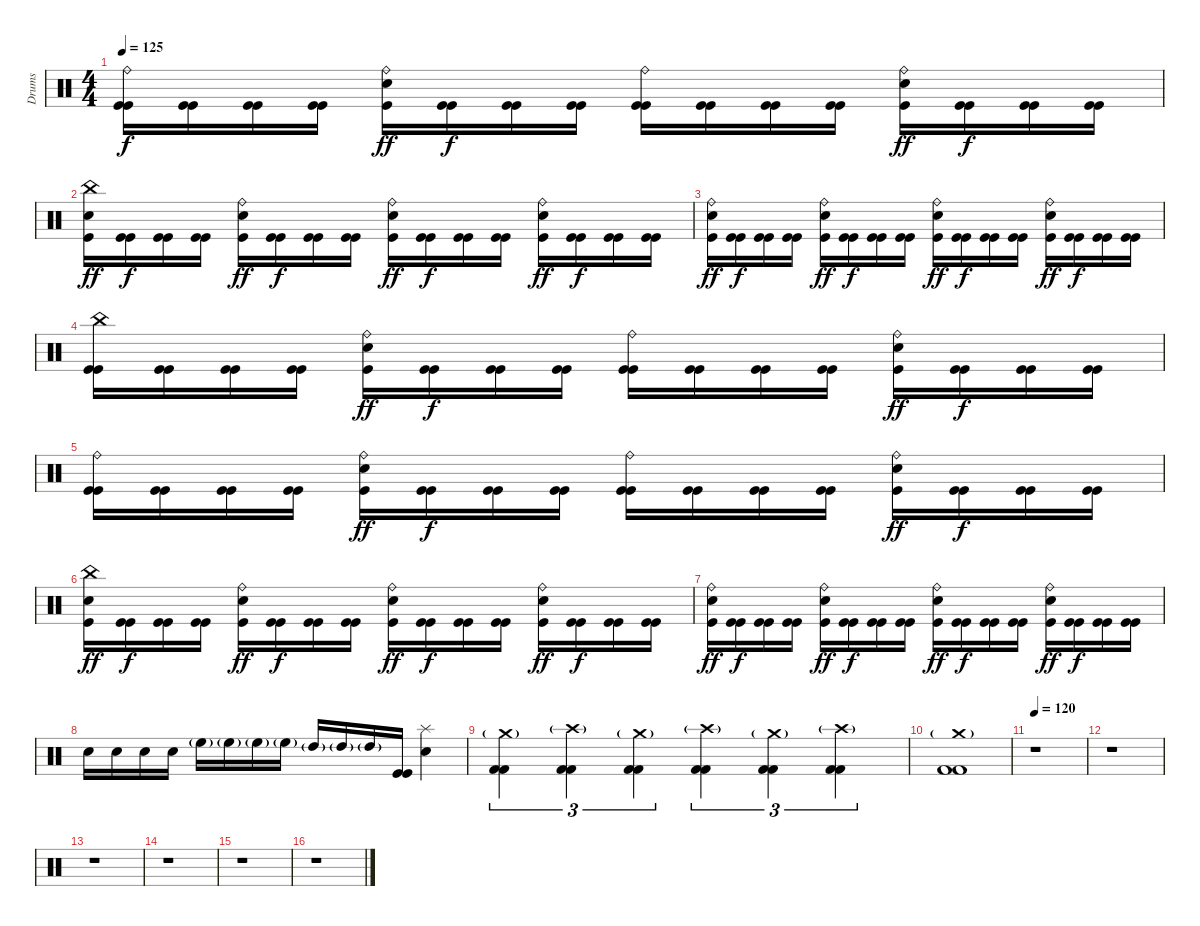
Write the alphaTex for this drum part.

\track ("Drums" "Drums") {instrument percussion}
\staff {score}
\articulation defaults
\ts (4 4)
\tempo 125
\clef neutral
\ks c
("Ride (bell)" "Kick (hit)" "Kick (hit)").16{dy f} ("Kick (hit)" "Kick (hit)").16 ("Kick (hit)" "Kick (hit)").16 ("Kick (hit)" "Kick (hit)").16 ("Ride (bell)" "Electric Snare (hit)" "Kick (hit)").16{dy ff} ("Kick (hit)" "Kick (hit)").16{dy f} ("Kick (hit)" "Kick (hit)").16 ("Kick (hit)" "Kick (hit)").16 ("Ride (bell)" "Kick (hit)" "Kick (hit)").16 ("Kick (hit)" "Kick (hit)").16 ("Kick (hit)" "Kick (hit)").16 ("Kick (hit)" "Kick (hit)").16 ("Ride (bell)" "Electric Snare (hit)" "Kick (hit)").16{dy ff} ("Kick (hit)" "Kick (hit)").16{dy f} ("Kick (hit)" "Kick (hit)").16 ("Kick (hit)" "Kick (hit)").16 |
("China (hit)" "Electric Snare (hit)" "Kick (hit)").16{dy ff} ("Kick (hit)" "Kick (hit)").16{dy f} ("Kick (hit)" "Kick (hit)").16 ("Kick (hit)" "Kick (hit)").16 ("Ride (bell)" "Electric Snare (hit)" "Kick (hit)").16{dy ff} ("Kick (hit)" "Kick (hit)").16{dy f} ("Kick (hit)" "Kick (hit)").16 ("Kick (hit)" "Kick (hit)").16 ("Ride (bell)" "Electric Snare (hit)" "Kick (hit)").16{dy ff} ("Kick (hit)" "Kick (hit)").16{dy f} ("Kick (hit)" "Kick (hit)").16 ("Kick (hit)" "Kick (hit)").16 ("Ride (bell)" "Electric Snare (hit)" "Kick (hit)").16{dy ff} ("Kick (hit)" "Kick (hit)").16{dy f} ("Kick (hit)" "Kick (hit)").16 ("Kick (hit)" "Kick (hit)").16 |
("Ride (bell)" "Electric Snare (hit)" "Kick (hit)").16{dy ff} ("Kick (hit)" "Kick (hit)").16{dy f} ("Kick (hit)" "Kick (hit)").16 ("Kick (hit)" "Kick (hit)").16 ("Ride (bell)" "Electric Snare (hit)" "Kick (hit)").16{dy ff} ("Kick (hit)" "Kick (hit)").16{dy f} ("Kick (hit)" "Kick (hit)").16 ("Kick (hit)" "Kick (hit)").16 ("Ride (bell)" "Electric Snare (hit)" "Kick (hit)").16{dy ff} ("Kick (hit)" "Kick (hit)").16{dy f} ("Kick (hit)" "Kick (hit)").16 ("Kick (hit)" "Kick (hit)").16 ("Ride (bell)" "Electric Snare (hit)" "Kick (hit)").16{dy ff} ("Kick (hit)" "Kick (hit)").16{dy f} ("Kick (hit)" "Kick (hit)").16 ("Kick (hit)" "Kick (hit)").16 |
("China (hit)" "Kick (hit)" "Kick (hit)").16 ("Kick (hit)" "Kick (hit)").16 ("Kick (hit)" "Kick (hit)").16 ("Kick (hit)" "Kick (hit)").16 ("Ride (bell)" "Electric Snare (hit)" "Kick (hit)").16{dy ff} ("Kick (hit)" "Kick (hit)").16{dy f} ("Kick (hit)" "Kick (hit)").16 ("Kick (hit)" "Kick (hit)").16 ("Ride (bell)" "Kick (hit)" "Kick (hit)").16 ("Kick (hit)" "Kick (hit)").16 ("Kick (hit)" "Kick (hit)").16 ("Kick (hit)" "Kick (hit)").16 ("Ride (bell)" "Electric Snare (hit)" "Kick (hit)").16{dy ff} ("Kick (hit)" "Kick (hit)").16{dy f} ("Kick (hit)" "Kick (hit)").16 ("Kick (hit)" "Kick (hit)").16 |
("Ride (bell)" "Kick (hit)" "Kick (hit)").16 ("Kick (hit)" "Kick (hit)").16 ("Kick (hit)" "Kick (hit)").16 ("Kick (hit)" "Kick (hit)").16 ("Ride (bell)" "Electric Snare (hit)" "Kick (hit)").16{dy ff} ("Kick (hit)" "Kick (hit)").16{dy f} ("Kick (hit)" "Kick (hit)").16 ("Kick (hit)" "Kick (hit)").16 ("Ride (bell)" "Kick (hit)" "Kick (hit)").16 ("Kick (hit)" "Kick (hit)").16 ("Kick (hit)" "Kick (hit)").16 ("Kick (hit)" "Kick (hit)").16 ("Ride (bell)" "Electric Snare (hit)" "Kick (hit)").16{dy ff} ("Kick (hit)" "Kick (hit)").16{dy f} ("Kick (hit)" "Kick (hit)").16 ("Kick (hit)" "Kick (hit)").16 |
("China (hit)" "Electric Snare (hit)" "Kick (hit)").16{dy ff} ("Kick (hit)" "Kick (hit)").16{dy f} ("Kick (hit)" "Kick (hit)").16 ("Kick (hit)" "Kick (hit)").16 ("Ride (bell)" "Electric Snare (hit)" "Kick (hit)").16{dy ff} ("Kick (hit)" "Kick (hit)").16{dy f} ("Kick (hit)" "Kick (hit)").16 ("Kick (hit)" "Kick (hit)").16 ("Ride (bell)" "Electric Snare (hit)" "Kick (hit)").16{dy ff} ("Kick (hit)" "Kick (hit)").16{dy f} ("Kick (hit)" "Kick (hit)").16 ("Kick (hit)" "Kick (hit)").16 ("Ride (bell)" "Electric Snare (hit)" "Kick (hit)").16{dy ff} ("Kick (hit)" "Kick (hit)").16{dy f} ("Kick (hit)" "Kick (hit)").16 ("Kick (hit)" "Kick (hit)").16 |
("Ride (bell)" "Electric Snare (hit)" "Kick (hit)").16{dy ff} ("Kick (hit)" "Kick (hit)").16{dy f} ("Kick (hit)" "Kick (hit)").16 ("Kick (hit)" "Kick (hit)").16 ("Ride (bell)" "Electric Snare (hit)" "Kick (hit)").16{dy ff} ("Kick (hit)" "Kick (hit)").16{dy f} ("Kick (hit)" "Kick (hit)").16 ("Kick (hit)" "Kick (hit)").16 ("Ride (bell)" "Electric Snare (hit)" "Kick (hit)").16{dy ff} ("Kick (hit)" "Kick (hit)").16{dy f} ("Kick (hit)" "Kick (hit)").16 ("Kick (hit)" "Kick (hit)").16 ("Ride (bell)" "Electric Snare (hit)" "Kick (hit)").16{dy ff} ("Kick (hit)" "Kick (hit)").16{dy f} ("Kick (hit)" "Kick (hit)").16 ("Kick (hit)" "Kick (hit)").16 |
"Electric Snare (hit)".16 "Electric Snare (hit)".16 "Electric Snare (hit)".16 "Electric Snare (hit)".16 "High Floor Tom (hit)"{g}.16 "High Floor Tom (hit)"{g}.16 "High Floor Tom (hit)"{g}.16 "High Floor Tom (hit)"{g}.16 "High Tom (hit)"{g}.16 "High Tom (hit)"{g}.16 "High Tom (hit)"{g}.16 ("Kick (hit)" "Kick (hit)").16 ("Splash (hit)" "Electric Snare (hit)").4 |
("Crash medium (hit)"{g} "Kick (hit) 2" "Kick (hit) 2").4{tu (3 2)} ("Crash high (hit)"{g} "Kick (hit) 2" "Kick (hit) 2").4{tu (3 2)} ("Crash medium (hit)"{g} "Kick (hit) 2" "Kick (hit) 2").4{tu (3 2)} ("Crash high (hit)"{g} "Kick (hit) 2" "Kick (hit) 2").4{tu (3 2)} ("Crash medium (hit)"{g} "Kick (hit) 2" "Kick (hit) 2").4{tu (3 2)} ("Crash high (hit)"{g} "Kick (hit) 2" "Kick (hit) 2").4{tu (3 2)} |
("Crash medium (hit)"{g} "Kick (hit) 2" "Kick (hit) 2").1 |
\tempo 120
r.1 |
r.1 |
r.1 |
r.1 |
r.1 |
r.1
